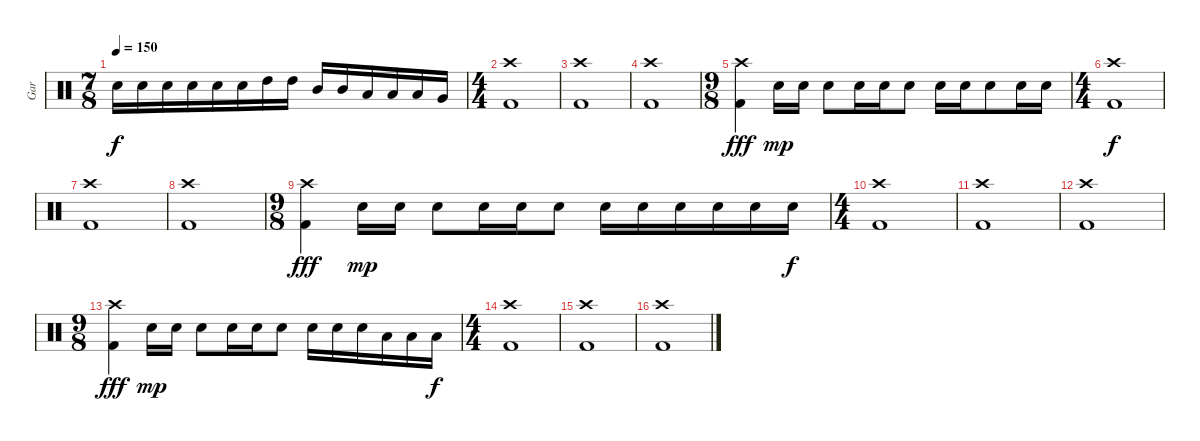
\track ("Gar" "Gar") {instrument percussion}
\staff {score}
\articulation defaults
\ts (7 8)
\tempo 150
\clef neutral
\ks c "Snare (hit) 2".16{dy f} "Snare (hit) 2".16 "Snare (hit) 2".16 "Snare (hit) 2".16 "Snare (hit) 2".16 "Snare (hit) 2".16 "High Tom (hit)".16 "High Tom (hit)".16 "Mid Tom (hit)".16 "Mid Tom (hit)".16 "Low Tom (hit)".16 "Low Tom (hit)".16 "Low Floor Tom (hit)".16 "Very Low Tom (hit)".16
|
\ts (4 4)
("Crash high (hit)" "Kick (hit) 2").1 |
("Crash high (hit)" "Kick (hit) 2").1 |
("Crash high (hit)" "Kick (hit) 2").1 |
\ts (9 8)
("Crash high (hit)" "Kick (hit) 2").4{dy fff} "Snare (hit) 2".16{dy mp} "Snare (hit) 2".16 "Snare (hit) 2".8 "Snare (hit) 2".16 "Snare (hit) 2".16 "Snare (hit) 2".8 "Snare (hit) 2".16 "Snare (hit) 2".16 "Snare (hit) 2".8 "Snare (hit) 2".16 "Snare (hit) 2".16 |
\ts (4 4)
("Crash high (hit)" "Kick (hit) 2").1{dy f} |
("Crash high (hit)" "Kick (hit) 2").1 |
("Crash high (hit)" "Kick (hit) 2").1 |
\ts (9 8)
("Crash high (hit)" "Kick (hit) 2").4{dy fff} "Snare (hit) 2".16{dy mp} "Snare (hit) 2".16 "Snare (hit) 2".8 "Snare (hit) 2".16 "Snare (hit) 2".16 "Snare (hit) 2".8 "Snare (hit) 2".16 "Snare (hit) 2".16 "Snare (hit) 2".16 "Snare (hit) 2".16 "Snare (hit) 2".16 "Snare (hit) 2".16{dy f} |
\ts (4 4)
("Crash high (hit)" "Kick (hit) 2").1 |
("Crash high (hit)" "Kick (hit) 2").1 |
("Crash high (hit)" "Kick (hit) 2").1 |
\ts (9 8)
("Crash high (hit)" "Kick (hit) 2").4{dy fff} "Snare (hit) 2".16{dy mp} "Snare (hit) 2".16 "Snare (hit) 2".8 "Snare (hit) 2".16 "Snare (hit) 2".16 "Snare (hit) 2".8 "Snare (hit) 2".16 "Snare (hit) 2".16 "Snare (hit) 2".16 "Low Floor Tom (hit)".16 "Low Floor Tom (hit)".16 "Low Floor Tom (hit)".16{dy f} |
\ts (4 4)
("Crash high (hit)" "Kick (hit) 2").1 |
("Crash high (hit)" "Kick (hit) 2").1 |
("Crash high (hit)" "Kick (hit) 2").1
